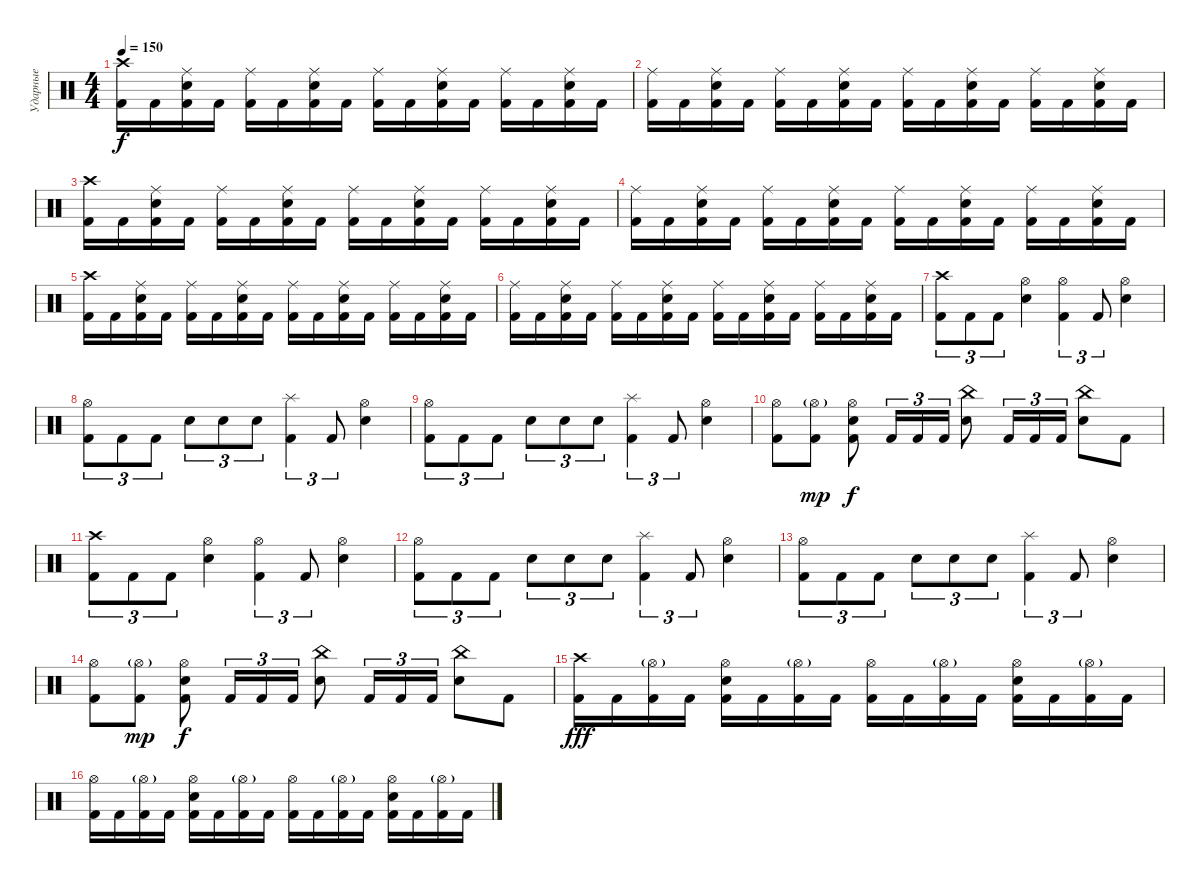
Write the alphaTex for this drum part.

\track ("Ударные" "Ударные") {instrument percussion}
\staff {score}
\articulation defaults
\ts (4 4)
\tempo 150
\clef neutral
\ks c
("Crash high (hit)" "Kick (hit) 2").16{dy f} "Kick (hit) 2".16 ("Ride (middle)" "Electric Snare (hit)" "Kick (hit) 2").16 "Kick (hit) 2".16 ("Ride (middle)" "Kick (hit) 2").16 "Kick (hit) 2".16 ("Ride (middle)" "Electric Snare (hit)" "Kick (hit) 2").16 "Kick (hit) 2".16 ("Ride (middle)" "Kick (hit) 2").16 "Kick (hit) 2".16 ("Ride (middle)" "Electric Snare (hit)" "Kick (hit) 2").16 "Kick (hit) 2".16 ("Ride (middle)" "Kick (hit) 2").16 "Kick (hit) 2".16 ("Ride (middle)" "Electric Snare (hit)" "Kick (hit) 2").16 "Kick (hit) 2".16 |
("Ride (middle)" "Kick (hit) 2").16 "Kick (hit) 2".16 ("Ride (middle)" "Electric Snare (hit)" "Kick (hit) 2").16 "Kick (hit) 2".16 ("Ride (middle)" "Kick (hit) 2").16 "Kick (hit) 2".16 ("Ride (middle)" "Electric Snare (hit)" "Kick (hit) 2").16 "Kick (hit) 2".16 ("Ride (middle)" "Kick (hit) 2").16 "Kick (hit) 2".16 ("Ride (middle)" "Electric Snare (hit)" "Kick (hit) 2").16 "Kick (hit) 2".16 ("Ride (middle)" "Kick (hit) 2").16 "Kick (hit) 2".16 ("Ride (middle)" "Electric Snare (hit)" "Kick (hit) 2").16 "Kick (hit) 2".16 |
("Crash high (hit)" "Kick (hit) 2").16 "Kick (hit) 2".16 ("Ride (middle)" "Electric Snare (hit)" "Kick (hit) 2").16 "Kick (hit) 2".16 ("Ride (middle)" "Kick (hit) 2").16 "Kick (hit) 2".16 ("Ride (middle)" "Electric Snare (hit)" "Kick (hit) 2").16 "Kick (hit) 2".16 ("Ride (middle)" "Kick (hit) 2").16 "Kick (hit) 2".16 ("Ride (middle)" "Electric Snare (hit)" "Kick (hit) 2").16 "Kick (hit) 2".16 ("Ride (middle)" "Kick (hit) 2").16 "Kick (hit) 2".16 ("Ride (middle)" "Electric Snare (hit)" "Kick (hit) 2").16 "Kick (hit) 2".16 |
("Ride (middle)" "Kick (hit) 2").16 "Kick (hit) 2".16 ("Ride (middle)" "Electric Snare (hit)" "Kick (hit) 2").16 "Kick (hit) 2".16 ("Ride (middle)" "Kick (hit) 2").16 "Kick (hit) 2".16 ("Ride (middle)" "Electric Snare (hit)" "Kick (hit) 2").16 "Kick (hit) 2".16 ("Ride (middle)" "Kick (hit) 2").16 "Kick (hit) 2".16 ("Ride (middle)" "Electric Snare (hit)" "Kick (hit) 2").16 "Kick (hit) 2".16 ("Ride (middle)" "Kick (hit) 2").16 "Kick (hit) 2".16 ("Ride (middle)" "Electric Snare (hit)" "Kick (hit) 2").16 "Kick (hit) 2".16 |
("Crash high (hit)" "Kick (hit) 2").16 "Kick (hit) 2".16 ("Ride (middle)" "Electric Snare (hit)" "Kick (hit) 2").16 "Kick (hit) 2".16 ("Ride (middle)" "Kick (hit) 2").16 "Kick (hit) 2".16 ("Ride (middle)" "Electric Snare (hit)" "Kick (hit) 2").16 "Kick (hit) 2".16 ("Ride (middle)" "Kick (hit) 2").16 "Kick (hit) 2".16 ("Ride (middle)" "Electric Snare (hit)" "Kick (hit) 2").16 "Kick (hit) 2".16 ("Ride (middle)" "Kick (hit) 2").16 "Kick (hit) 2".16 ("Ride (middle)" "Electric Snare (hit)" "Kick (hit) 2").16 "Kick (hit) 2".16 |
("Ride (middle)" "Kick (hit) 2").16 "Kick (hit) 2".16 ("Ride (middle)" "Electric Snare (hit)" "Kick (hit) 2").16 "Kick (hit) 2".16 ("Ride (middle)" "Kick (hit) 2").16 "Kick (hit) 2".16 ("Ride (middle)" "Electric Snare (hit)" "Kick (hit) 2").16 "Kick (hit) 2".16 ("Ride (middle)" "Kick (hit) 2").16 "Kick (hit) 2".16 ("Ride (middle)" "Electric Snare (hit)" "Kick (hit) 2").16 "Kick (hit) 2".16 ("Ride (middle)" "Kick (hit) 2").16 "Kick (hit) 2".16 ("Ride (middle)" "Electric Snare (hit)" "Kick (hit) 2").16 "Kick (hit) 2".16 |
("Crash high (hit)" "Kick (hit) 2").8{tu (3 2)} "Kick (hit) 2".8{tu (3 2)} "Kick (hit) 2".8{tu (3 2)} ("Hi-Hat (open)" "Electric Snare (hit)").4 ("Hi-Hat (open)" "Kick (hit) 2").4{tu (3 2)} "Kick (hit) 2".8{tu (3 2)} ("Hi-Hat (open)" "Electric Snare (hit)").4 |
("Hi-Hat (open)" "Kick (hit) 2").8{tu (3 2)} "Kick (hit) 2".8{tu (3 2)} "Kick (hit) 2".8{tu (3 2)} "Electric Snare (hit)".8{tu (3 2)} "Electric Snare (hit)".8{tu (3 2)} "Electric Snare (hit)".8{tu (3 2)} ("Splash (hit)" "Kick (hit) 2").4{tu (3 2)} "Kick (hit) 2".8{tu (3 2)} ("Hi-Hat (open)" "Electric Snare (hit)").4 |
("Hi-Hat (open)" "Kick (hit) 2").8{tu (3 2)} "Kick (hit) 2".8{tu (3 2)} "Kick (hit) 2".8{tu (3 2)} "Electric Snare (hit)".8{tu (3 2)} "Electric Snare (hit)".8{tu (3 2)} "Electric Snare (hit)".8{tu (3 2)} ("Splash (hit)" "Kick (hit) 2").4{tu (3 2)} "Kick (hit) 2".8{tu (3 2)} ("Hi-Hat (open)" "Electric Snare (hit)").4 |
("Hi-Hat (open)" "Kick (hit) 2").8 ("Hi-Hat (open)"{g} "Kick (hit) 2").8{dy mp} ("Hi-Hat (open)" "Electric Snare (hit)" "Kick (hit) 2").8{dy f} "Kick (hit) 2".16{tu (3 2)} "Kick (hit) 2".16{tu (3 2)} "Kick (hit) 2".16{tu (3 2)} ("China (hit)" "Electric Snare (hit)").8 "Kick (hit) 2".16{tu (3 2)} "Kick (hit) 2".16{tu (3 2)} "Kick (hit) 2".16{tu (3 2)} ("China (hit)" "Electric Snare (hit)").8 "Kick (hit) 2".8 |
("Crash high (hit)" "Kick (hit) 2").8{tu (3 2)} "Kick (hit) 2".8{tu (3 2)} "Kick (hit) 2".8{tu (3 2)} ("Hi-Hat (open)" "Electric Snare (hit)").4 ("Hi-Hat (open)" "Kick (hit) 2").4{tu (3 2)} "Kick (hit) 2".8{tu (3 2)} ("Hi-Hat (open)" "Electric Snare (hit)").4 |
("Hi-Hat (open)" "Kick (hit) 2").8{tu (3 2)} "Kick (hit) 2".8{tu (3 2)} "Kick (hit) 2".8{tu (3 2)} "Electric Snare (hit)".8{tu (3 2)} "Electric Snare (hit)".8{tu (3 2)} "Electric Snare (hit)".8{tu (3 2)} ("Splash (hit)" "Kick (hit) 2").4{tu (3 2)} "Kick (hit) 2".8{tu (3 2)} ("Hi-Hat (open)" "Electric Snare (hit)").4 |
("Hi-Hat (open)" "Kick (hit) 2").8{tu (3 2)} "Kick (hit) 2".8{tu (3 2)} "Kick (hit) 2".8{tu (3 2)} "Electric Snare (hit)".8{tu (3 2)} "Electric Snare (hit)".8{tu (3 2)} "Electric Snare (hit)".8{tu (3 2)} ("Splash (hit)" "Kick (hit) 2").4{tu (3 2)} "Kick (hit) 2".8{tu (3 2)} ("Hi-Hat (open)" "Electric Snare (hit)").4 |
("Hi-Hat (open)" "Kick (hit) 2").8 ("Hi-Hat (open)"{g} "Kick (hit) 2").8{dy mp} ("Hi-Hat (open)" "Electric Snare (hit)" "Kick (hit) 2").8{dy f} "Kick (hit) 2".16{tu (3 2)} "Kick (hit) 2".16{tu (3 2)} "Kick (hit) 2".16{tu (3 2)} ("China (hit)" "Electric Snare (hit)").8 "Kick (hit) 2".16{tu (3 2)} "Kick (hit) 2".16{tu (3 2)} "Kick (hit) 2".16{tu (3 2)} ("China (hit)" "Electric Snare (hit)").8 "Kick (hit) 2".8 |
("Crash high (hit)" "Kick (hit) 2").16{dy fff} "Kick (hit) 2".16 ("Hi-Hat (open)"{g} "Kick (hit) 2").16 "Kick (hit) 2".16 ("Hi-Hat (open)" "Electric Snare (hit)" "Kick (hit) 2").16 "Kick (hit) 2".16 ("Hi-Hat (open)"{g} "Kick (hit) 2").16 "Kick (hit) 2".16 ("Hi-Hat (open)" "Kick (hit) 2").16 "Kick (hit) 2".16 ("Hi-Hat (open)"{g} "Kick (hit) 2").16 "Kick (hit) 2".16 ("Hi-Hat (open)" "Electric Snare (hit)" "Kick (hit) 2").16 "Kick (hit) 2".16 ("Hi-Hat (open)"{g} "Kick (hit) 2").16 "Kick (hit) 2".16 |
("Hi-Hat (open)" "Kick (hit) 2").16 "Kick (hit) 2".16 ("Hi-Hat (open)"{g} "Kick (hit) 2").16 "Kick (hit) 2".16 ("Hi-Hat (open)" "Electric Snare (hit)" "Kick (hit) 2").16 "Kick (hit) 2".16 ("Hi-Hat (open)"{g} "Kick (hit) 2").16 "Kick (hit) 2".16 ("Hi-Hat (open)" "Kick (hit) 2").16 "Kick (hit) 2".16 ("Hi-Hat (open)"{g} "Kick (hit) 2").16 "Kick (hit) 2".16 ("Hi-Hat (open)" "Electric Snare (hit)" "Kick (hit) 2").16 "Kick (hit) 2".16 ("Hi-Hat (open)"{g} "Kick (hit) 2").16 "Kick (hit) 2".16
